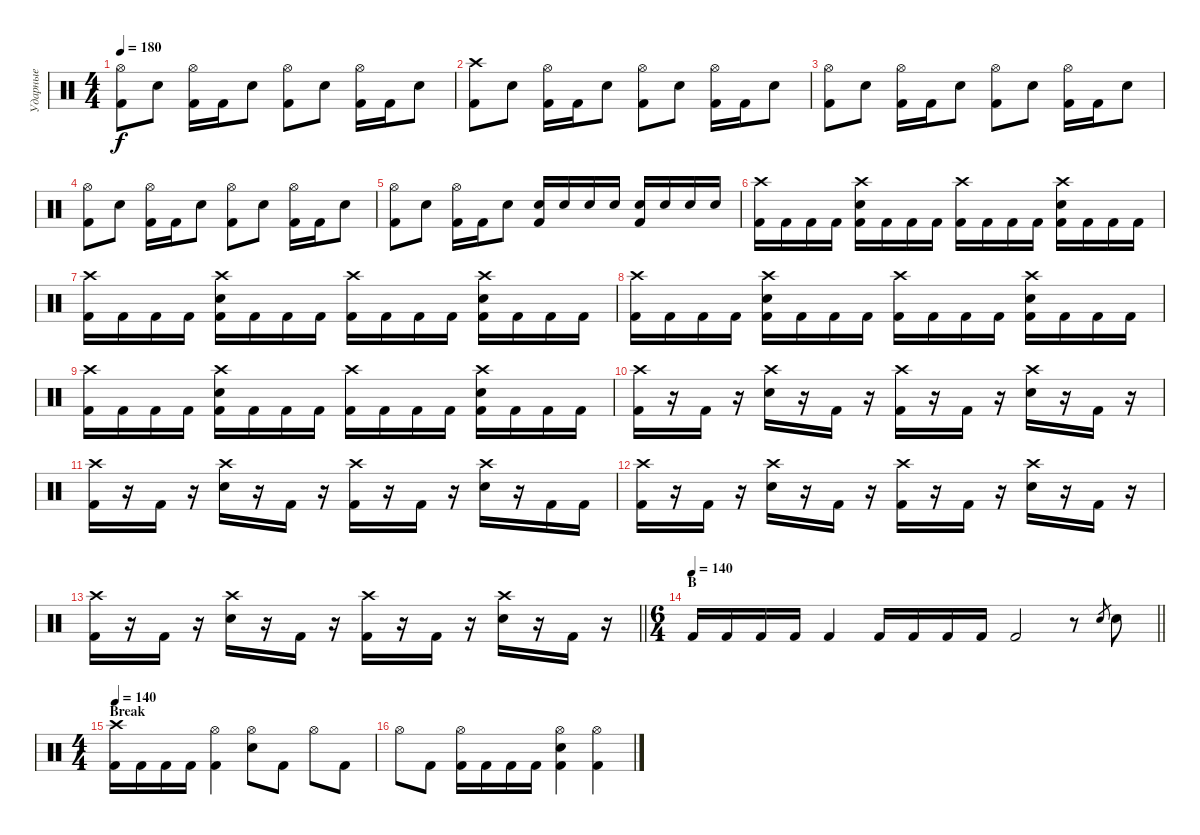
\track ("Ударные" "Ударные") {instrument percussion}
\staff {score}
\articulation defaults
\ts (4 4)
\tempo 180
\clef neutral
\ks c
("Hi-Hat (open)" "Kick (hit) 2").8{dy f} "Electric Snare (hit)".8 ("Hi-Hat (open)" "Kick (hit) 2").16 "Kick (hit) 2".16 "Electric Snare (hit)".8 ("Hi-Hat (open)" "Kick (hit) 2").8 "Electric Snare (hit)".8 ("Hi-Hat (open)" "Kick (hit) 2").16 "Kick (hit) 2".16 "Electric Snare (hit)".8 |
("Crash high (hit)" "Kick (hit) 2").8 "Electric Snare (hit)".8 ("Hi-Hat (open)" "Kick (hit) 2").16 "Kick (hit) 2".16 "Electric Snare (hit)".8 ("Hi-Hat (open)" "Kick (hit) 2").8 "Electric Snare (hit)".8 ("Hi-Hat (open)" "Kick (hit) 2").16 "Kick (hit) 2".16 "Electric Snare (hit)".8 |
("Hi-Hat (open)" "Kick (hit) 2").8 "Electric Snare (hit)".8 ("Hi-Hat (open)" "Kick (hit) 2").16 "Kick (hit) 2".16 "Electric Snare (hit)".8 ("Hi-Hat (open)" "Kick (hit) 2").8 "Electric Snare (hit)".8 ("Hi-Hat (open)" "Kick (hit) 2").16 "Kick (hit) 2".16 "Electric Snare (hit)".8 |
("Hi-Hat (open)" "Kick (hit) 2").8 "Electric Snare (hit)".8 ("Hi-Hat (open)" "Kick (hit) 2").16 "Kick (hit) 2".16 "Electric Snare (hit)".8 ("Hi-Hat (open)" "Kick (hit) 2").8 "Electric Snare (hit)".8 ("Hi-Hat (open)" "Kick (hit) 2").16 "Kick (hit) 2".16 "Electric Snare (hit)".8 |
("Hi-Hat (open)" "Kick (hit) 2").8 "Electric Snare (hit)".8 ("Hi-Hat (open)" "Kick (hit) 2").16 "Kick (hit) 2".16 "Electric Snare (hit)".8 ("Electric Snare (hit)" "Kick (hit) 2").16 "Electric Snare (hit)".16 "Electric Snare (hit)".16 "Electric Snare (hit)".16 ("Electric Snare (hit)" "Kick (hit) 2").16 "Electric Snare (hit)".16 "Electric Snare (hit)".16 "Electric Snare (hit)".16 |
("Crash high (hit)" "Kick (hit) 2").16 "Kick (hit) 2".16 "Kick (hit) 2".16 "Kick (hit) 2".16 ("Crash high (hit)" "Electric Snare (hit)" "Kick (hit) 2").16 "Kick (hit) 2".16 "Kick (hit) 2".16 "Kick (hit) 2".16 ("Crash high (hit)" "Kick (hit) 2").16 "Kick (hit) 2".16 "Kick (hit) 2".16 "Kick (hit) 2".16 ("Crash high (hit)" "Electric Snare (hit)" "Kick (hit) 2").16 "Kick (hit) 2".16 "Kick (hit) 2".16 "Kick (hit) 2".16 |
("Crash high (hit)" "Kick (hit) 2").16 "Kick (hit) 2".16 "Kick (hit) 2".16 "Kick (hit) 2".16 ("Crash high (hit)" "Electric Snare (hit)" "Kick (hit) 2").16 "Kick (hit) 2".16 "Kick (hit) 2".16 "Kick (hit) 2".16 ("Crash high (hit)" "Kick (hit) 2").16 "Kick (hit) 2".16 "Kick (hit) 2".16 "Kick (hit) 2".16 ("Crash high (hit)" "Electric Snare (hit)" "Kick (hit) 2").16 "Kick (hit) 2".16 "Kick (hit) 2".16 "Kick (hit) 2".16 |
("Crash high (hit)" "Kick (hit) 2").16 "Kick (hit) 2".16 "Kick (hit) 2".16 "Kick (hit) 2".16 ("Crash high (hit)" "Electric Snare (hit)" "Kick (hit) 2").16 "Kick (hit) 2".16 "Kick (hit) 2".16 "Kick (hit) 2".16 ("Crash high (hit)" "Kick (hit) 2").16 "Kick (hit) 2".16 "Kick (hit) 2".16 "Kick (hit) 2".16 ("Crash high (hit)" "Electric Snare (hit)" "Kick (hit) 2").16 "Kick (hit) 2".16 "Kick (hit) 2".16 "Kick (hit) 2".16 |
("Crash high (hit)" "Kick (hit) 2").16 "Kick (hit) 2".16 "Kick (hit) 2".16 "Kick (hit) 2".16 ("Crash high (hit)" "Electric Snare (hit)" "Kick (hit) 2").16 "Kick (hit) 2".16 "Kick (hit) 2".16 "Kick (hit) 2".16 ("Crash high (hit)" "Kick (hit) 2").16 "Kick (hit) 2".16 "Kick (hit) 2".16 "Kick (hit) 2".16 ("Crash high (hit)" "Electric Snare (hit)" "Kick (hit) 2").16 "Kick (hit) 2".16 "Kick (hit) 2".16 "Kick (hit) 2".16 |
("Crash high (hit)" "Kick (hit) 2").16 r.16 "Kick (hit) 2".16 r.16 ("Crash high (hit)" "Electric Snare (hit)").16 r.16 "Kick (hit) 2".16 r.16 ("Crash high (hit)" "Kick (hit) 2").16 r.16 "Kick (hit) 2".16 r.16 ("Crash high (hit)" "Electric Snare (hit)").16 r.16 "Kick (hit) 2".16 r.16 |
("Crash high (hit)" "Kick (hit) 2").16 r.16 "Kick (hit) 2".16 r.16 ("Crash high (hit)" "Electric Snare (hit)").16 r.16 "Kick (hit) 2".16 r.16 ("Crash high (hit)" "Kick (hit) 2").16 r.16 "Kick (hit) 2".16 r.16 ("Crash high (hit)" "Electric Snare (hit)").16 r.16 "Kick (hit) 2".16 "Kick (hit) 2".16 |
("Crash high (hit)" "Kick (hit) 2").16 r.16 "Kick (hit) 2".16 r.16 ("Crash high (hit)" "Electric Snare (hit)").16 r.16 "Kick (hit) 2".16 r.16 ("Crash high (hit)" "Kick (hit) 2").16 r.16 "Kick (hit) 2".16 r.16 ("Crash high (hit)" "Electric Snare (hit)").16 r.16 "Kick (hit) 2".16 r.16 |
\barLineRight lightlight
("Crash high (hit)" "Kick (hit) 2").16 r.16 "Kick (hit) 2".16 r.16 ("Crash high (hit)" "Electric Snare (hit)").16 r.16 "Kick (hit) 2".16 r.16 ("Crash high (hit)" "Kick (hit) 2").16 r.16 "Kick (hit) 2".16 r.16 ("Crash high (hit)" "Electric Snare (hit)").16 r.16 "Kick (hit) 2".16 r.16 |
\ts (6 4)
\section ("" "B")
\tempo 140
\barLineRight lightlight "Kick (hit) 2".16 "Kick (hit) 2".16 "Kick (hit) 2".16 "Kick (hit) 2".16 "Kick (hit) 2".4 "Kick (hit) 2".16 "Kick (hit) 2".16 "Kick (hit) 2".16 "Kick (hit) 2".16 "Kick (hit) 2".2
r.8 "Electric Snare (hit)".8{gr} "Electric Snare (hit)".8 |
\ts (4 4)
\section ("" "Break")
\tempo 140
("Crash high (hit)" "Kick (hit) 2").16 "Kick (hit) 2".16 "Kick (hit) 2".16 "Kick (hit) 2".16 ("Hi-Hat (open)" "Kick (hit) 2").4 ("Hi-Hat (open)" "Electric Snare (hit)").8 "Kick (hit) 2".8 "Hi-Hat (open)".8 "Kick (hit) 2".8 |
"Hi-Hat (open)".8 "Kick (hit) 2".8 ("Hi-Hat (open)" "Kick (hit) 2").16 "Kick (hit) 2".16 "Kick (hit) 2".16 "Kick (hit) 2".16 ("Hi-Hat (open)" "Electric Snare (hit)" "Kick (hit) 2").4 ("Hi-Hat (open)" "Kick (hit) 2").4
